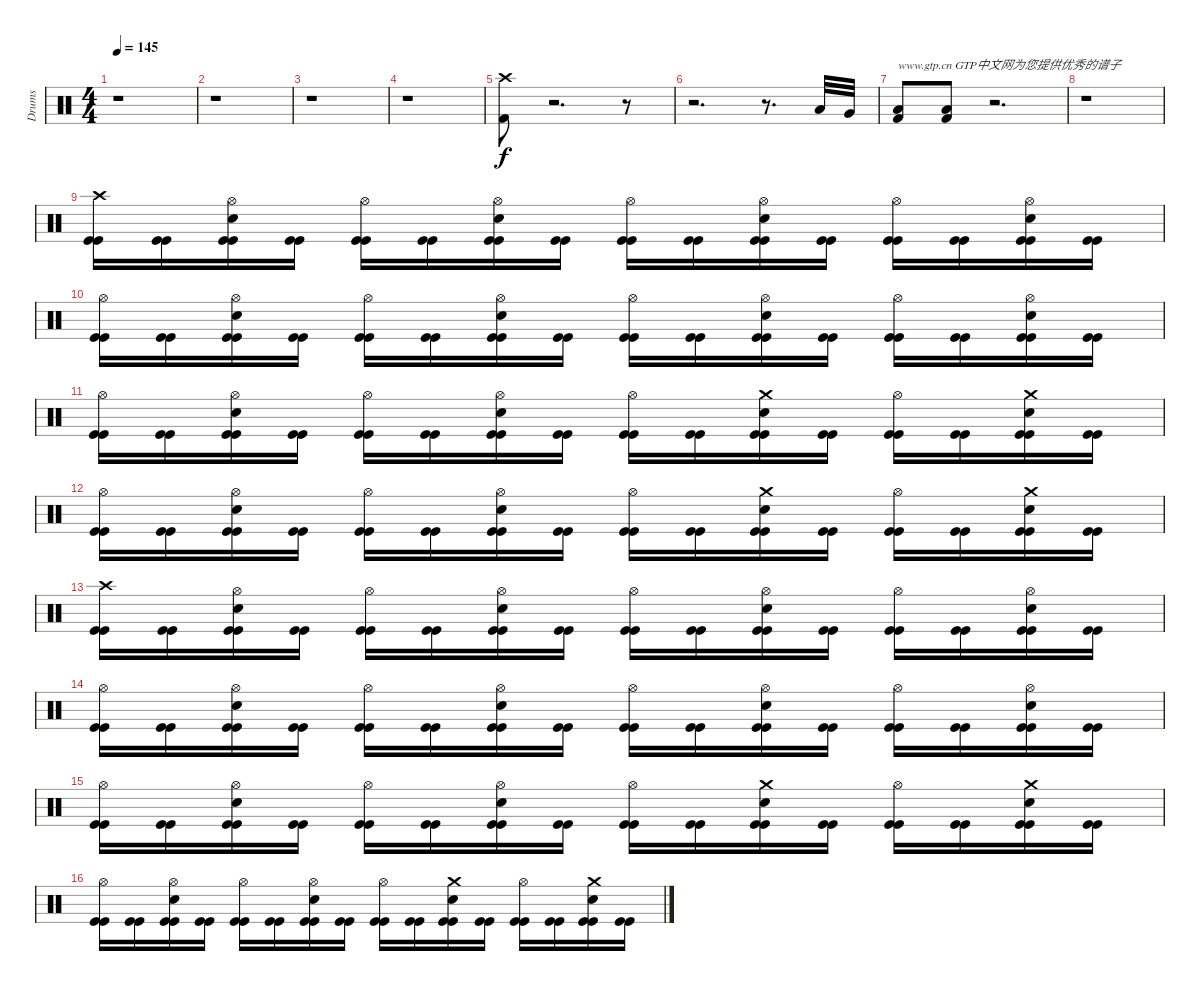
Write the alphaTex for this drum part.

\track ("Drums" "Drums") {instrument percussion}
\staff {score}
\articulation defaults
\ts (4 4)
\tempo 145
\clef neutral
\ks c
r.1{dy f} |
r.1 |
r.1 |
r.1 |
("Kick (hit) 2" "Crash high (hit)").8 r.2{d} r.8 |
r.2{d} r.8{d} "Low Tom (hit)".32 "Very Low Tom (hit)".32 |
("Kick (hit) 2" "Low Floor Tom (hit)").8{txt "www.gtp.cn GTP中文网为您提供优秀的谱子"} ("Low Floor Tom (hit)" "Kick (hit) 2").8 r.2{d} |
r.1 |
("Kick (hit)" "Kick (hit)" "Crash high (hit)").16 ("Kick (hit)" "Kick (hit)").16 ("Kick (hit)" "Kick (hit)" "Snare (hit) 2" "Hi-Hat (open)").16 ("Kick (hit)" "Kick (hit)").16 ("Kick (hit)" "Kick (hit)" "Hi-Hat (open)").16 ("Kick (hit)" "Kick (hit)").16 ("Kick (hit)" "Kick (hit)" "Snare (hit) 2" "Hi-Hat (open)").16 ("Kick (hit)" "Kick (hit)").16 ("Kick (hit)" "Kick (hit)" "Hi-Hat (open)").16 ("Kick (hit)" "Kick (hit)").16 ("Kick (hit)" "Kick (hit)" "Snare (hit) 2" "Hi-Hat (open)").16 ("Kick (hit)" "Kick (hit)").16 ("Kick (hit)" "Kick (hit)" "Hi-Hat (open)").16 ("Kick (hit)" "Kick (hit)").16 ("Kick (hit)" "Kick (hit)" "Snare (hit) 2" "Hi-Hat (open)").16 ("Kick (hit)" "Kick (hit)").16 |
("Kick (hit)" "Kick (hit)" "Hi-Hat (open)").16 ("Kick (hit)" "Kick (hit)").16 ("Kick (hit)" "Kick (hit)" "Snare (hit) 2" "Hi-Hat (open)").16 ("Kick (hit)" "Kick (hit)").16 ("Kick (hit)" "Kick (hit)" "Hi-Hat (open)").16 ("Kick (hit)" "Kick (hit)").16 ("Kick (hit)" "Kick (hit)" "Snare (hit) 2" "Hi-Hat (open)").16 ("Kick (hit)" "Kick (hit)").16 ("Kick (hit)" "Kick (hit)" "Hi-Hat (open)").16 ("Kick (hit)" "Kick (hit)").16 ("Kick (hit)" "Kick (hit)" "Snare (hit) 2" "Hi-Hat (open)").16 ("Kick (hit)" "Kick (hit)").16 ("Kick (hit)" "Kick (hit)" "Hi-Hat (open)").16 ("Kick (hit)" "Kick (hit)").16 ("Kick (hit)" "Kick (hit)" "Snare (hit) 2" "Hi-Hat (open)").16 ("Kick (hit)" "Kick (hit)").16 |
("Kick (hit)" "Kick (hit)" "Hi-Hat (open)").16 ("Kick (hit)" "Kick (hit)").16 ("Kick (hit)" "Kick (hit)" "Snare (hit) 2" "Hi-Hat (open)").16 ("Kick (hit)" "Kick (hit)").16 ("Kick (hit)" "Kick (hit)" "Hi-Hat (open)").16 ("Kick (hit)" "Kick (hit)").16 ("Kick (hit)" "Kick (hit)" "Snare (hit) 2" "Hi-Hat (open)").16 ("Kick (hit)" "Kick (hit)").16 ("Kick (hit)" "Kick (hit)" "Hi-Hat (open)").16 ("Kick (hit)" "Kick (hit)").16 ("Kick (hit)" "Kick (hit)" "Snare (hit) 2" "Crash medium (hit)").16 ("Kick (hit)" "Kick (hit)").16 ("Kick (hit)" "Kick (hit)" "Hi-Hat (open)").16 ("Kick (hit)" "Kick (hit)").16 ("Kick (hit)" "Kick (hit)" "Snare (hit) 2" "Crash medium (hit)").16 ("Kick (hit)" "Kick (hit)").16 |
("Kick (hit)" "Kick (hit)" "Hi-Hat (open)").16 ("Kick (hit)" "Kick (hit)").16 ("Kick (hit)" "Kick (hit)" "Snare (hit) 2" "Hi-Hat (open)").16 ("Kick (hit)" "Kick (hit)").16 ("Kick (hit)" "Kick (hit)" "Hi-Hat (open)").16 ("Kick (hit)" "Kick (hit)").16 ("Kick (hit)" "Kick (hit)" "Snare (hit) 2" "Hi-Hat (open)").16 ("Kick (hit)" "Kick (hit)").16 ("Kick (hit)" "Kick (hit)" "Hi-Hat (open)").16 ("Kick (hit)" "Kick (hit)").16 ("Kick (hit)" "Kick (hit)" "Snare (hit) 2" "Crash medium (hit)").16 ("Kick (hit)" "Kick (hit)").16 ("Kick (hit)" "Kick (hit)" "Hi-Hat (open)").16 ("Kick (hit)" "Kick (hit)").16 ("Kick (hit)" "Kick (hit)" "Snare (hit) 2" "Crash medium (hit)").16 ("Kick (hit)" "Kick (hit)").16 |
("Kick (hit)" "Kick (hit)" "Crash high (hit)").16 ("Kick (hit)" "Kick (hit)").16 ("Kick (hit)" "Kick (hit)" "Snare (hit) 2" "Hi-Hat (open)").16 ("Kick (hit)" "Kick (hit)").16 ("Kick (hit)" "Kick (hit)" "Hi-Hat (open)").16 ("Kick (hit)" "Kick (hit)").16 ("Kick (hit)" "Kick (hit)" "Snare (hit) 2" "Hi-Hat (open)").16 ("Kick (hit)" "Kick (hit)").16 ("Kick (hit)" "Kick (hit)" "Hi-Hat (open)").16 ("Kick (hit)" "Kick (hit)").16 ("Kick (hit)" "Kick (hit)" "Snare (hit) 2" "Hi-Hat (open)").16 ("Kick (hit)" "Kick (hit)").16 ("Kick (hit)" "Kick (hit)" "Hi-Hat (open)").16 ("Kick (hit)" "Kick (hit)").16 ("Kick (hit)" "Kick (hit)" "Snare (hit) 2" "Hi-Hat (open)").16 ("Kick (hit)" "Kick (hit)").16 |
("Kick (hit)" "Kick (hit)" "Hi-Hat (open)").16 ("Kick (hit)" "Kick (hit)").16 ("Kick (hit)" "Kick (hit)" "Snare (hit) 2" "Hi-Hat (open)").16 ("Kick (hit)" "Kick (hit)").16 ("Kick (hit)" "Kick (hit)" "Hi-Hat (open)").16 ("Kick (hit)" "Kick (hit)").16 ("Kick (hit)" "Kick (hit)" "Snare (hit) 2" "Hi-Hat (open)").16 ("Kick (hit)" "Kick (hit)").16 ("Kick (hit)" "Kick (hit)" "Hi-Hat (open)").16 ("Kick (hit)" "Kick (hit)").16 ("Kick (hit)" "Kick (hit)" "Snare (hit) 2" "Hi-Hat (open)").16 ("Kick (hit)" "Kick (hit)").16 ("Kick (hit)" "Kick (hit)" "Hi-Hat (open)").16 ("Kick (hit)" "Kick (hit)").16 ("Kick (hit)" "Kick (hit)" "Snare (hit) 2" "Hi-Hat (open)").16 ("Kick (hit)" "Kick (hit)").16 |
("Kick (hit)" "Kick (hit)" "Hi-Hat (open)").16 ("Kick (hit)" "Kick (hit)").16 ("Kick (hit)" "Kick (hit)" "Snare (hit) 2" "Hi-Hat (open)").16 ("Kick (hit)" "Kick (hit)").16 ("Kick (hit)" "Kick (hit)" "Hi-Hat (open)").16 ("Kick (hit)" "Kick (hit)").16 ("Kick (hit)" "Kick (hit)" "Snare (hit) 2" "Hi-Hat (open)").16 ("Kick (hit)" "Kick (hit)").16 ("Kick (hit)" "Kick (hit)" "Hi-Hat (open)").16 ("Kick (hit)" "Kick (hit)").16 ("Kick (hit)" "Kick (hit)" "Snare (hit) 2" "Crash medium (hit)").16 ("Kick (hit)" "Kick (hit)").16 ("Kick (hit)" "Kick (hit)" "Hi-Hat (open)").16 ("Kick (hit)" "Kick (hit)").16 ("Kick (hit)" "Kick (hit)" "Snare (hit) 2" "Crash medium (hit)").16 ("Kick (hit)" "Kick (hit)").16 |
("Kick (hit)" "Kick (hit)" "Hi-Hat (open)").16 ("Kick (hit)" "Kick (hit)").16 ("Kick (hit)" "Kick (hit)" "Snare (hit) 2" "Hi-Hat (open)").16 ("Kick (hit)" "Kick (hit)").16 ("Kick (hit)" "Kick (hit)" "Hi-Hat (open)").16 ("Kick (hit)" "Kick (hit)").16 ("Kick (hit)" "Kick (hit)" "Snare (hit) 2" "Hi-Hat (open)").16 ("Kick (hit)" "Kick (hit)").16 ("Kick (hit)" "Kick (hit)" "Hi-Hat (open)").16 ("Kick (hit)" "Kick (hit)").16 ("Kick (hit)" "Kick (hit)" "Snare (hit) 2" "Crash medium (hit)").16 ("Kick (hit)" "Kick (hit)").16 ("Kick (hit)" "Kick (hit)" "Hi-Hat (open)").16 ("Kick (hit)" "Kick (hit)").16 ("Kick (hit)" "Kick (hit)" "Snare (hit) 2" "Crash medium (hit)").16 ("Kick (hit)" "Kick (hit)").16
